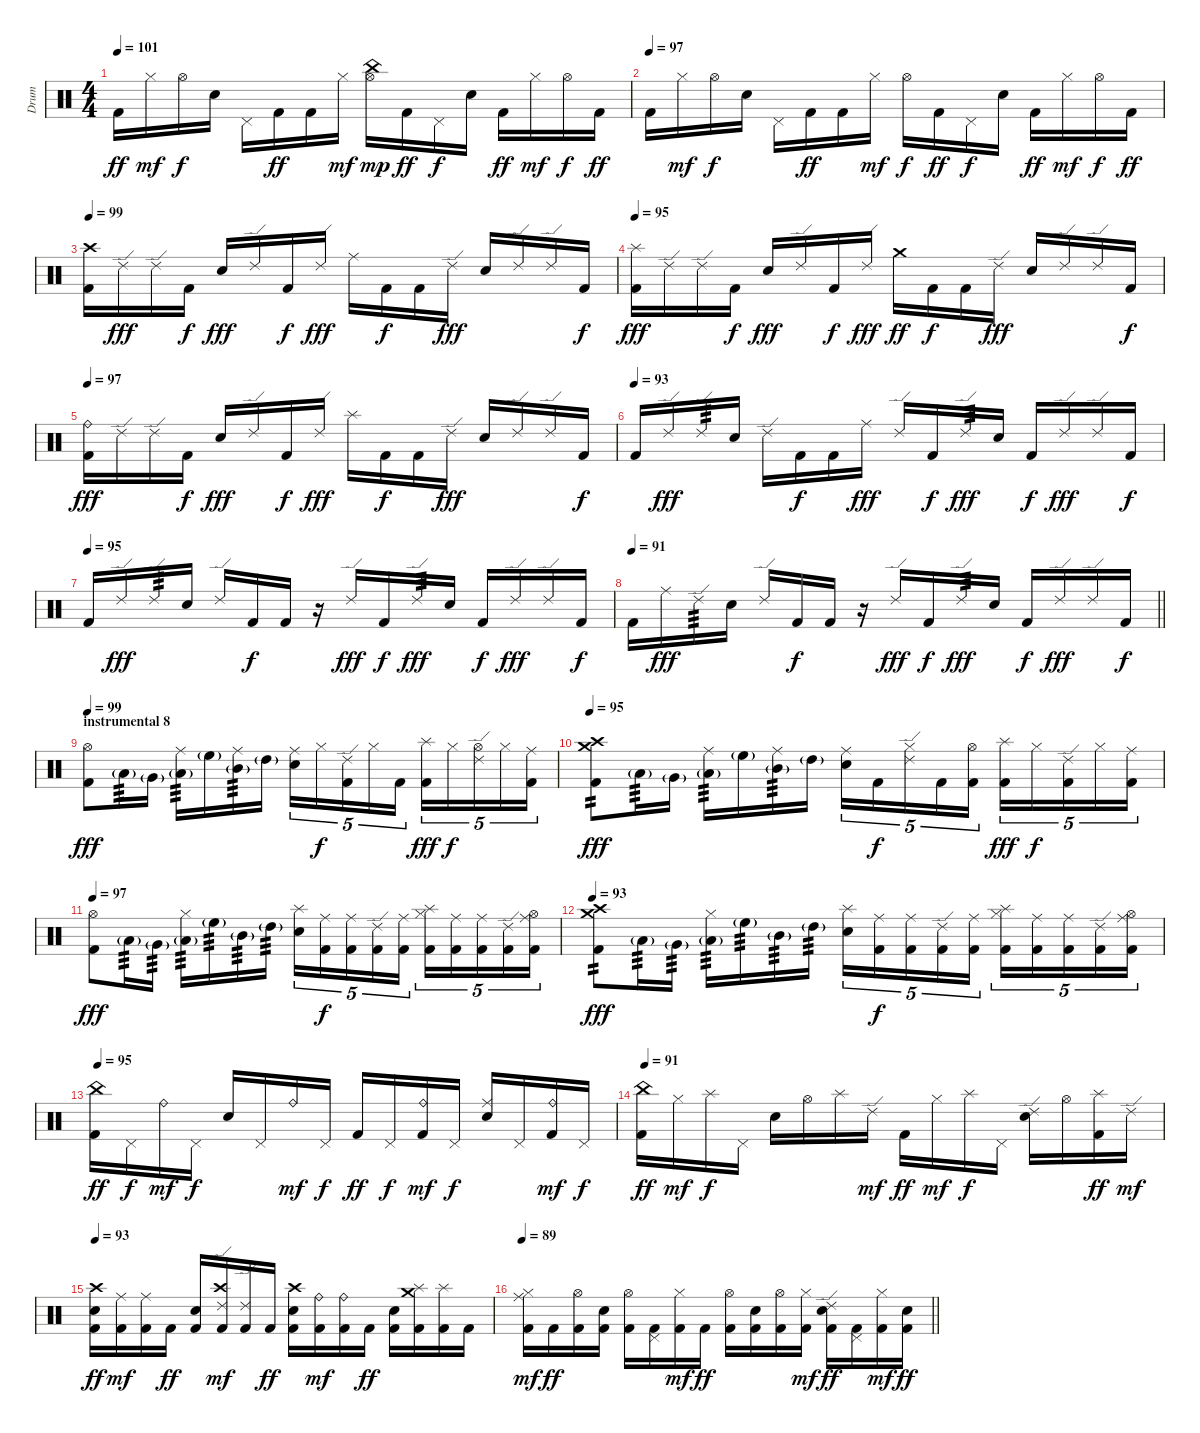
\track ("Drum" "Drum") {instrument percussion}
\staff {score}
\articulation defaults
\ts (4 4)
\tempo 101
\clef neutral
\ks c "Kick (hit) 2".16{dy ff} "Hi-Hat (closed)".16{dy mf} "Hi-Hat (open)".16{dy f} "Electric Snare (hit)".16 "Pedal Hi-Hat (hit)".16 "Kick (hit) 2".16{dy ff} "Kick (hit) 2".16 "Hi-Hat (closed)".16{dy mf}
("Hi-Hat (open)" "China (hit)").16{dy mp} "Kick (hit) 2".16{dy ff} "Pedal Hi-Hat (hit)".16{dy f} "Electric Snare (hit)".16 "Kick (hit) 2".16{dy ff} "Hi-Hat (closed)".16{dy mf} "Hi-Hat (open)".16{dy f} "Kick (hit) 2".16{dy ff} |
\tempo (97)
"Kick (hit) 2".16 "Hi-Hat (closed)".16{dy mf} "Hi-Hat (open)".16{dy f} "Electric Snare (hit)".16 "Pedal Hi-Hat (hit)".16 "Kick (hit) 2".16{dy ff} "Kick (hit) 2".16 "Hi-Hat (closed)".16{dy mf} "Hi-Hat (open)".16{dy f} "Kick (hit) 2".16{dy ff} "Pedal Hi-Hat (hit)".16{dy f} "Electric Snare (hit)".16 "Kick (hit) 2".16{dy ff} "Hi-Hat (closed)".16{dy mf} "Hi-Hat (open)".16{dy f} "Kick (hit) 2".16{dy ff} |
\tempo 99
("Kick (hit) 2" "Crash high (hit)").16 "Ride (edge) 2".16{dy fff} "Ride (edge) 2".16 "Kick (hit) 2".16{dy f} "Electric Snare (hit)".16{dy fff} "Ride (edge) 2".16 "Kick (hit) 2".16{dy f} "Ride (edge) 2".16{dy fff} "Ride (middle)".16 "Kick (hit) 2".16{dy f} "Kick (hit) 2".16 "Ride (edge) 2".16{dy fff} "Electric Snare (hit)".16 "Ride (edge) 2".16 "Ride (edge) 2".16 "Kick (hit) 2".16{dy f} |
\tempo 95
("Kick (hit) 2" "Splash (hit)").16{dy fff} "Ride (edge) 2".16 "Ride (edge) 2".16 "Kick (hit) 2".16{dy f} "Electric Snare (hit)".16{dy fff} "Ride (edge) 2".16 "Kick (hit) 2".16{dy f} "Ride (edge) 2".16{dy fff} "Crash medium (hit)".16{dy ff} "Kick (hit) 2".16{dy f} "Kick (hit) 2".16 "Ride (edge) 2".16{dy fff} "Electric Snare (hit)".16 "Ride (edge) 2".16 "Ride (edge) 2".16 "Kick (hit) 2".16{dy f} |
\tempo 97
("Kick (hit) 2" "Ride (bell)").16{dy fff} "Ride (edge) 2".16 "Ride (edge) 2".16 "Kick (hit) 2".16{dy f} "Electric Snare (hit)".16{dy fff} "Ride (edge) 2".16 "Kick (hit) 2".16{dy f} "Ride (edge) 2".16{dy fff} "Splash (hit)".16 "Kick (hit) 2".16{dy f} "Kick (hit) 2".16 "Ride (edge) 2".16{dy fff} "Electric Snare (hit)".16 "Ride (edge) 2".16 "Ride (edge) 2".16 "Kick (hit) 2".16{dy f} |
\tempo (93)
"Kick (hit) 2".16 "Ride (edge) 2".16{dy fff} "Ride (edge) 2".16{tp 3} "Electric Snare (hit)".16 "Ride (edge) 2".16 "Kick (hit) 2".16{dy f} "Kick (hit) 2".16 "Ride (middle)".16{dy fff} "Ride (edge) 2".16 "Kick (hit) 2".16{dy f} "Ride (edge) 2".16{tp 3 dy fff} "Electric Snare (hit)".16 "Kick (hit) 2".16{dy f} "Ride (edge) 2".16{dy fff} "Ride (edge) 2".16 "Kick (hit) 2".16{dy f} |
\tempo (95)
"Kick (hit) 2".16 "Ride (edge) 2".16{dy fff} "Ride (edge) 2".16{tp 3} "Electric Snare (hit)".16 "Ride (edge) 2".16 "Kick (hit) 2".16{dy f} "Kick (hit) 2".16 r.16 "Ride (edge) 2".16{dy fff} "Kick (hit) 2".16{dy f} "Ride (edge) 2".16{tp 3 dy fff} "Electric Snare (hit)".16 "Kick (hit) 2".16{dy f} "Ride (edge) 2".16{dy fff} "Ride (edge) 2".16 "Kick (hit) 2".16{dy f} |
\tempo 91
\barLineRight lightlight "Kick (hit) 2".16 "Ride (middle)".16{dy fff} "Ride (edge) 2".16{tp 3} "Electric Snare (hit)".16 "Ride (edge) 2".16 "Kick (hit) 2".16{dy f} "Kick (hit) 2".16
r.16 "Ride (edge) 2".16{dy fff} "Kick (hit) 2".16{dy f} "Ride (edge) 2".16{tp 3 dy fff} "Electric Snare (hit)".16 "Kick (hit) 2".16{dy f} "Ride (edge) 2".16{dy fff} "Ride (edge) 2".16 "Kick (hit) 2".16{dy f} |
\section ("" "instrumental 8")
\tempo 99
("Kick (hit) 2" "Hi-Hat (open)").8{dy fff} "Low Floor Tom (hit)"{g}.16{tp 3} "Very Low Tom (hit)"{g}.16 ("Ride (middle)" "Low Tom (hit)"{g}).16{tp 3} "High Floor Tom (hit)"{g}.16 ("Ride (middle)" "Mid Tom (hit)"{g}).16{tp 3} "High Tom (hit)"{g}.16 ("Electric Snare (hit)" "Ride (middle)").16{tu (5 4)} "Hi-Hat (closed)".16{tu (5 4) dy f} ("Kick (hit) 2" "Ride (edge) 2").16{tu (5 4)} "Hi-Hat (closed)".16{tu (5 4)} "Kick (hit) 2".16{tu (5 4)} ("Kick (hit) 2" "Splash (hit)").16{tu (5 4) dy fff} "Hi-Hat (closed)".16{tu (5 4) dy f} ("Hi-Hat (open)" "Ride (edge) 2").16{tu (5 4)} "Hi-Hat (closed)".16{tu (5 4)} ("Kick (hit) 2" "Ride (middle)").16{tu (5 4)} |
\tempo 95
("Kick (hit) 2" "Crash high (hit)" "Crash medium (hit)").8{tp 2 dy fff} "Low Floor Tom (hit)"{g}.16{tp 3} "Very Low Tom (hit)"{g}.16 ("Ride (middle)" "Low Tom (hit)"{g}).16{tp 3} "High Floor Tom (hit)"{g}.16 ("Ride (middle)" "Mid Tom (hit)"{g}).16{tp 3} "High Tom (hit)"{g}.16 ("Electric Snare (hit)" "Ride (middle)").16{tu (5 4)} "Kick (hit) 2".16{tu (5 4) dy f} ("Hi-Hat (closed)" "Ride (edge) 2").16{tu (5 4)} "Kick (hit) 2".16{tu (5 4)} ("Kick (hit) 2" "Hi-Hat (open)").16{tu (5 4)} ("Kick (hit) 2" "Splash (hit)").16{tu (5 4) dy fff} "Hi-Hat (closed)".16{tu (5 4) dy f} ("Kick (hit) 2" "Ride (edge) 2").16{tu (5 4)} "Hi-Hat (closed)".16{tu (5 4)} ("Kick (hit) 2" "Ride (middle)").16{tu (5 4)} |
\tempo 97
("Kick (hit) 2" "Hi-Hat (open)").8{dy fff} "Low Floor Tom (hit)"{g}.16{tp 3} "Very Low Tom (hit)"{g}.16{tp 3} ("Hi-Hat (closed)" "Low Tom (hit)"{g}).16{tp 3} "High Floor Tom (hit)"{g}.16{tp 3} "Mid Tom (hit)"{g}.16{tp 3} "High Tom (hit)"{g}.16{tp 3} ("Electric Snare (hit)" "Splash (hit)").16{tu (5 4)} ("Kick (hit) 2" "Ride (middle)").16{tu (5 4) dy f} ("Kick (hit) 2" "Ride (middle)").16{tu (5 4)} ("Kick (hit) 2" "Ride (edge) 2").16{tu (5 4)} ("Kick (hit) 2" "Ride (middle)").16{tu (5 4)} ("Kick (hit) 2" "Hi-Hat (closed)" "Splash (hit)").16{tu (5 4)} ("Kick (hit) 2" "Ride (middle)").16{tu (5 4)} ("Kick (hit) 2" "Ride (middle)").16{tu (5 4)} ("Kick (hit) 2" "Ride (edge) 2").16{tu (5 4)} ("Kick (hit) 2" "Hi-Hat (open)" "Ride (middle)").16{tu (5 4)} |
\tempo 93
("Kick (hit) 2" "Crash high (hit)" "Crash medium (hit)").8{tp 2 dy fff} "Low Floor Tom (hit)"{g}.16{tp 3} "Very Low Tom (hit)"{g}.16{tp 3} ("Hi-Hat (closed)" "Low Tom (hit)"{g}).16{tp 3} "High Floor Tom (hit)"{g}.16{tp 3} "Mid Tom (hit)"{g}.16{tp 3} "High Tom (hit)"{g}.16{tp 3} ("Electric Snare (hit)" "Splash (hit)").16{tu (5 4)} ("Kick (hit) 2" "Ride (middle)").16{tu (5 4) dy f} ("Kick (hit) 2" "Ride (middle)").16{tu (5 4)} ("Kick (hit) 2" "Ride (edge) 2").16{tu (5 4)} ("Kick (hit) 2" "Ride (middle)").16{tu (5 4)} ("Kick (hit) 2" "Hi-Hat (closed)" "Splash (hit)").16{tu (5 4)} ("Kick (hit) 2" "Ride (middle)").16{tu (5 4)} ("Kick (hit) 2" "Ride (middle)").16{tu (5 4)} ("Kick (hit) 2" "Ride (edge) 2").16{tu (5 4)} ("Kick (hit) 2" "Hi-Hat (open)" "Ride (middle)").16{tu (5 4)} |
\tempo 95
("Kick (hit) 2" "China (hit)").16{dy ff} "Pedal Hi-Hat (hit)".16{dy f} "Ride (bell)".16{dy mf} "Pedal Hi-Hat (hit)".16{dy f} "Electric Snare (hit)".16 "Pedal Hi-Hat (hit)".16 "Ride (bell)".16{dy mf} "Pedal Hi-Hat (hit)".16{dy f} "Kick (hit) 2".16{dy ff} "Pedal Hi-Hat (hit)".16{dy f} ("Kick (hit) 2" "Ride (bell)").16{dy mf} "Pedal Hi-Hat (hit)".16{dy f} ("Electric Snare (hit)" "Ride (middle)").16 "Pedal Hi-Hat (hit)".16 ("Kick (hit) 2" "Ride (bell)").16{dy mf} "Pedal Hi-Hat (hit)".16{dy f} |
\tempo 91
("Kick (hit) 2" "China (hit)").16{dy ff} "Hi-Hat (closed)".16{dy mf} "Splash (hit)".16{dy f} "Pedal Hi-Hat (hit)".16 "Electric Snare (hit)".16 "Hi-Hat (open)".16 "Splash (hit)".16 "Ride (edge) 2".16{dy mf} "Kick (hit) 2".16{dy ff} "Hi-Hat (closed)".16{dy mf} "Splash (hit)".16{dy f} "Pedal Hi-Hat (hit)".16 ("Electric Snare (hit)" "Ride (edge) 2").16 "Hi-Hat (open)".16 ("Kick (hit) 2" "Splash (hit)").16{dy ff} "Ride (edge) 2".16{dy mf} |
\tempo 93
("Kick (hit) 2" "Electric Snare (hit)" "Crash high (hit)").16{dy ff} ("Kick (hit) 2" "Ride (middle)").16{dy mf} ("Kick (hit) 2" "Ride (middle)").16 "Kick (hit) 2".16{dy ff} ("Kick (hit) 2" "Electric Snare (hit)").16 ("Kick (hit) 2" "Ride (edge) 2" "Crash high (hit)").16{dy mf} ("Kick (hit) 2" "Ride (edge) 2").16 "Kick (hit) 2".16{dy ff} ("Kick (hit) 2" "Electric Snare (hit)" "Crash high (hit)").16 ("Kick (hit) 2" "Ride (bell)").16{dy mf} ("Kick (hit) 2" "Ride (bell)").16 "Kick (hit) 2".16{dy ff} ("Kick (hit) 2" "Electric Snare (hit)").16 ("Kick (hit) 2" "Splash (hit)" "Crash medium (hit)").16 ("Kick (hit) 2" "Splash (hit)").16 "Kick (hit) 2".16 |
\tempo 89
\barLineRight lightlight
("Kick (hit) 2" "Hi-Hat (closed)" "Ride (middle)").16{dy mf} "Kick (hit) 2".16{dy ff} ("Kick (hit) 2" "Hi-Hat (open)").16 ("Kick (hit) 2" "Electric Snare (hit)").16 ("Kick (hit) 2" "Hi-Hat (open)").16 ("Kick (hit) 2" "Pedal Hi-Hat (hit)").16 ("Kick (hit) 2" "Hi-Hat (closed)").16{dy mf} "Kick (hit) 2".16{dy ff} ("Kick (hit) 2" "Hi-Hat (open)").16 ("Kick (hit) 2" "Electric Snare (hit)").16 ("Kick (hit) 2" "Hi-Hat (open)").16 ("Kick (hit) 2" "Hi-Hat (closed)").16{dy mf} ("Kick (hit) 2" "Electric Snare (hit)" "Ride (edge) 2").16{dy ff} ("Kick (hit) 2" "Pedal Hi-Hat (hit)").16 ("Kick (hit) 2" "Hi-Hat (closed)").16{dy mf} ("Kick (hit) 2" "Electric Snare (hit)").16{dy ff}
